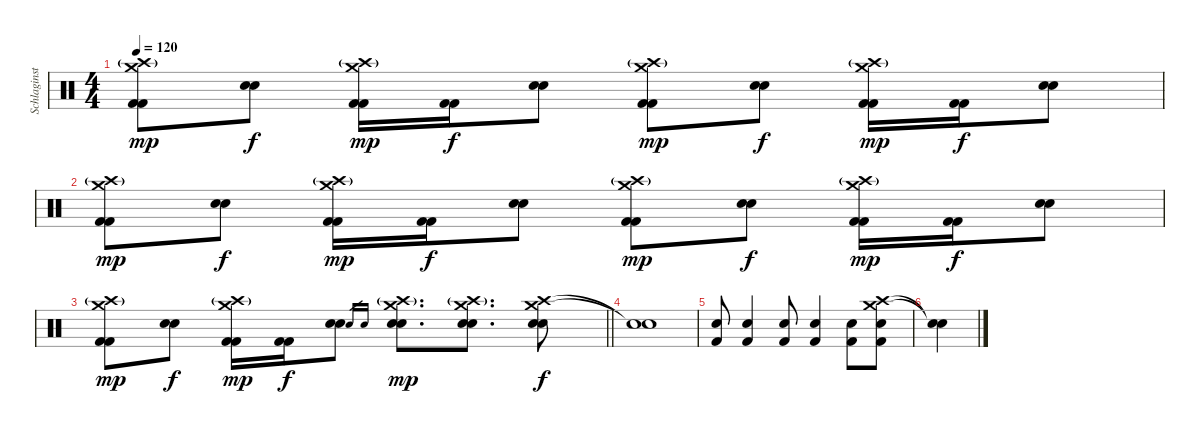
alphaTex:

\track ("Schlaginstrumente - Auswahl" "Schlaginst") {instrument percussion}
\staff {score}
\articulation defaults
\ts (4 4)
\tempo 120
\clef neutral
\ks c
("Crash high (hit)"{g} "Crash medium (hit)" "Kick (hit) 2" "Kick (hit) 2").8{dy mp} ("Electric Snare (hit)" "Electric Snare (hit)").8{dy f} ("Crash high (hit)"{g} "Crash medium (hit)" "Kick (hit) 2" "Kick (hit) 2").16{dy mp} ("Kick (hit) 2" "Kick (hit) 2").16{dy f} ("Electric Snare (hit)" "Electric Snare (hit)").8 ("Crash high (hit)"{g} "Crash medium (hit)" "Kick (hit) 2" "Kick (hit) 2").8{dy mp} ("Electric Snare (hit)" "Electric Snare (hit)").8{dy f} ("Crash high (hit)"{g} "Crash medium (hit)" "Kick (hit) 2" "Kick (hit) 2").16{dy mp} ("Kick (hit) 2" "Kick (hit) 2").16{dy f} ("Electric Snare (hit)" "Electric Snare (hit)").8 |
("Crash high (hit)"{g} "Crash medium (hit)" "Kick (hit) 2" "Kick (hit) 2").8{dy mp} ("Electric Snare (hit)" "Electric Snare (hit)").8{dy f} ("Crash high (hit)"{g} "Crash medium (hit)" "Kick (hit) 2" "Kick (hit) 2").16{dy mp} ("Kick (hit) 2" "Kick (hit) 2").16{dy f} ("Electric Snare (hit)" "Electric Snare (hit)").8 ("Crash high (hit)"{g} "Crash medium (hit)" "Kick (hit) 2" "Kick (hit) 2").8{dy mp} ("Electric Snare (hit)" "Electric Snare (hit)").8{dy f} ("Crash high (hit)"{g} "Crash medium (hit)" "Kick (hit) 2" "Kick (hit) 2").16{dy mp} ("Kick (hit) 2" "Kick (hit) 2").16{dy f} ("Electric Snare (hit)" "Electric Snare (hit)").8 |
\barLineRight lightlight
("Crash high (hit)"{g} "Crash medium (hit)" "Kick (hit) 2" "Kick (hit) 2").8{dy mp} ("Electric Snare (hit)" "Electric Snare (hit)").8{dy f} ("Crash high (hit)"{g} "Crash medium (hit)" "Kick (hit) 2" "Kick (hit) 2").16{dy mp} ("Kick (hit) 2" "Kick (hit) 2").16{dy f} ("Electric Snare (hit)" "Electric Snare (hit)").8 "Electric Snare (hit)".16{gr} "Electric Snare (hit)".16{gr} ("Crash high (hit)"{g} "Crash medium (hit)" "Electric Snare (hit)" "Electric Snare (hit)").8{d dy mp} ("Crash high (hit)"{g} "Crash medium (hit)" "Electric Snare (hit)" "Electric Snare (hit)").8{d} ("Crash high (hit)" "Crash medium (hit)" "Electric Snare (hit)" "Electric Snare (hit)").8{dy f} |
("Snare (hit)"{t} "Snare (hit)"{t}).1 |
("Electric Snare (hit)" "Kick (hit) 2").8 ("Electric Snare (hit)" "Kick (hit) 2").4 ("Electric Snare (hit)" "Kick (hit) 2").8 ("Electric Snare (hit)" "Kick (hit) 2").4 ("Electric Snare (hit)" "Kick (hit) 2").8 ("Crash high (hit)" "Crash medium (hit)" "Electric Snare (hit)" "Kick (hit) 2").8 |
("Snare (hit)"{t} "Snare (hit)"{t}).4
